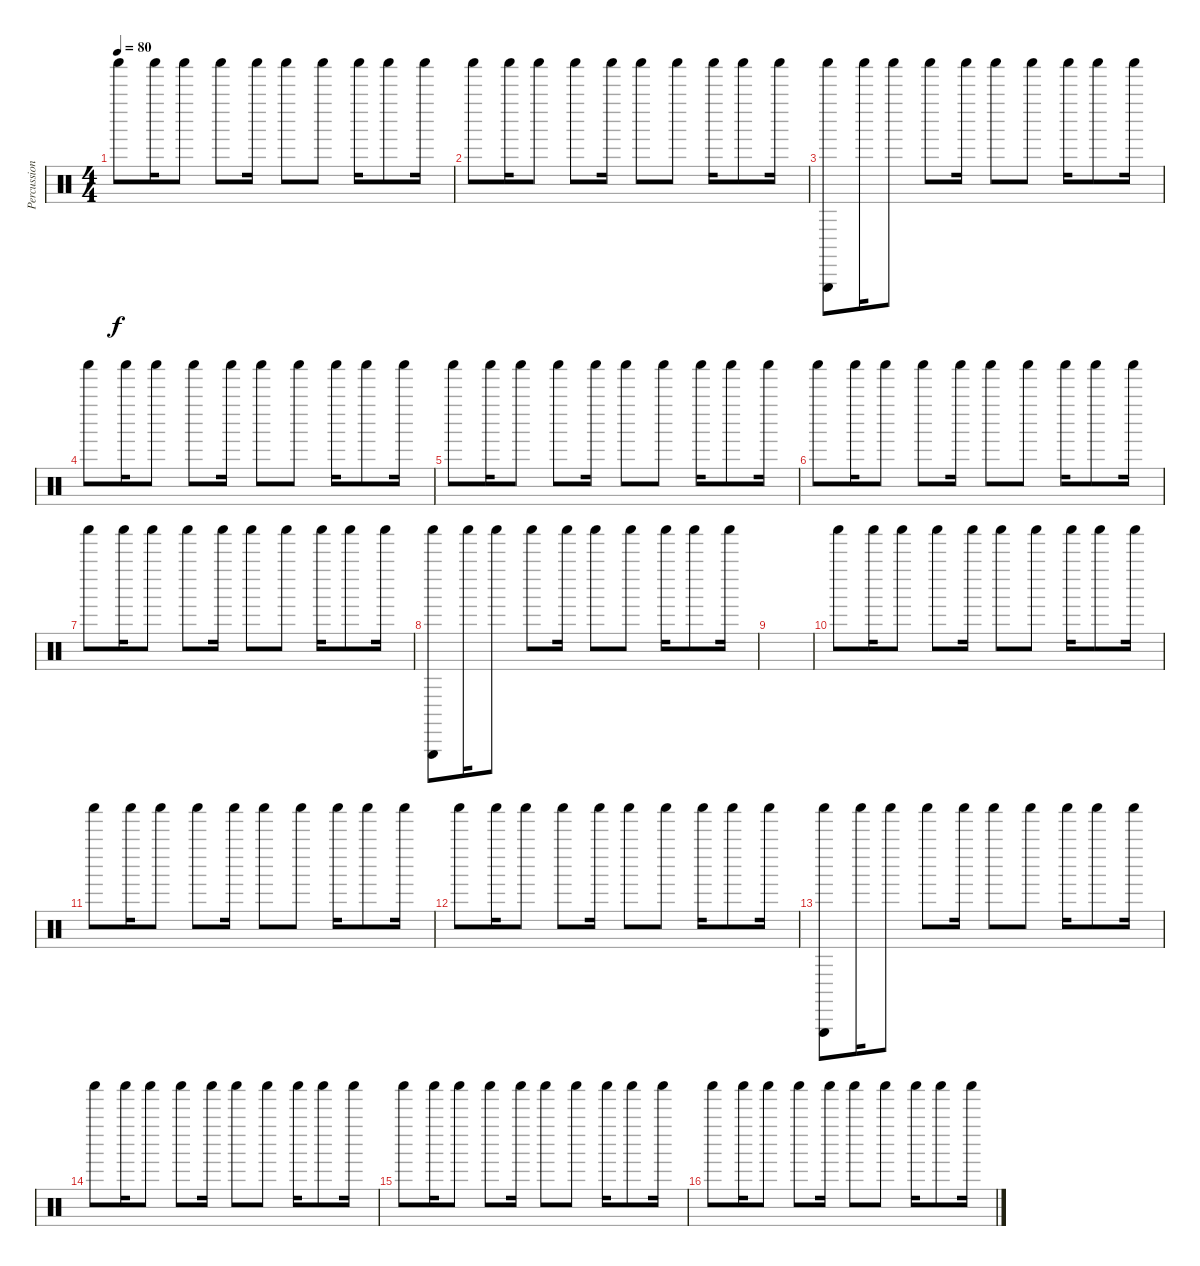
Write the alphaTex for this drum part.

\track ("Percussion" "Percussion") {instrument percussion}
\staff {score}
\articulation defaults
\ts (4 4)
\tempo 80
\clef neutral
\ks c "Shaker (hit)".8{dy f} "Shaker (hit)".16 "Shaker (hit)".8 "Shaker (hit)".8 "Shaker (hit)".16 "Shaker (hit)".8 "Shaker (hit)".8 "Shaker (hit)".16 "Shaker (hit)".8 "Shaker (hit)".16
|
"Shaker (hit)".8 "Shaker (hit)".16 "Shaker (hit)".8 "Shaker (hit)".8 "Shaker (hit)".16 "Shaker (hit)".8 "Shaker (hit)".8 "Shaker (hit)".16 "Shaker (hit)".8 "Shaker (hit)".16 |
("Shaker (hit)" "Triangle (hit)").8 "Shaker (hit)".16 "Shaker (hit)".8 "Shaker (hit)".8 "Shaker (hit)".16 "Shaker (hit)".8 "Shaker (hit)".8 "Shaker (hit)".16 "Shaker (hit)".8 "Shaker (hit)".16 |
"Shaker (hit)".8 "Shaker (hit)".16 "Shaker (hit)".8 "Shaker (hit)".8 "Shaker (hit)".16 "Shaker (hit)".8 "Shaker (hit)".8 "Shaker (hit)".16 "Shaker (hit)".8 "Shaker (hit)".16 |
"Shaker (hit)".8 "Shaker (hit)".16 "Shaker (hit)".8 "Shaker (hit)".8 "Shaker (hit)".16 "Shaker (hit)".8 "Shaker (hit)".8 "Shaker (hit)".16 "Shaker (hit)".8 "Shaker (hit)".16 |
"Shaker (hit)".8 "Shaker (hit)".16 "Shaker (hit)".8 "Shaker (hit)".8 "Shaker (hit)".16 "Shaker (hit)".8 "Shaker (hit)".8 "Shaker (hit)".16 "Shaker (hit)".8 "Shaker (hit)".16 |
"Shaker (hit)".8 "Shaker (hit)".16 "Shaker (hit)".8 "Shaker (hit)".8 "Shaker (hit)".16 "Shaker (hit)".8 "Shaker (hit)".8 "Shaker (hit)".16 "Shaker (hit)".8 "Shaker (hit)".16 |
("Shaker (hit)" "Triangle (hit)").8 "Shaker (hit)".16 "Shaker (hit)".8 "Shaker (hit)".8 "Shaker (hit)".16 "Shaker (hit)".8 "Shaker (hit)".8 "Shaker (hit)".16 "Shaker (hit)".8 "Shaker (hit)".16 |
|
"Shaker (hit)".8 "Shaker (hit)".16 "Shaker (hit)".8 "Shaker (hit)".8 "Shaker (hit)".16 "Shaker (hit)".8 "Shaker (hit)".8 "Shaker (hit)".16 "Shaker (hit)".8 "Shaker (hit)".16 |
"Shaker (hit)".8 "Shaker (hit)".16 "Shaker (hit)".8 "Shaker (hit)".8 "Shaker (hit)".16 "Shaker (hit)".8 "Shaker (hit)".8 "Shaker (hit)".16 "Shaker (hit)".8 "Shaker (hit)".16 |
"Shaker (hit)".8 "Shaker (hit)".16 "Shaker (hit)".8 "Shaker (hit)".8 "Shaker (hit)".16 "Shaker (hit)".8 "Shaker (hit)".8 "Shaker (hit)".16 "Shaker (hit)".8 "Shaker (hit)".16 |
("Shaker (hit)" "Triangle (hit)").8 "Shaker (hit)".16 "Shaker (hit)".8 "Shaker (hit)".8 "Shaker (hit)".16 "Shaker (hit)".8 "Shaker (hit)".8 "Shaker (hit)".16 "Shaker (hit)".8 "Shaker (hit)".16 |
"Shaker (hit)".8 "Shaker (hit)".16 "Shaker (hit)".8 "Shaker (hit)".8 "Shaker (hit)".16 "Shaker (hit)".8 "Shaker (hit)".8 "Shaker (hit)".16 "Shaker (hit)".8 "Shaker (hit)".16 |
"Shaker (hit)".8 "Shaker (hit)".16 "Shaker (hit)".8 "Shaker (hit)".8 "Shaker (hit)".16 "Shaker (hit)".8 "Shaker (hit)".8 "Shaker (hit)".16 "Shaker (hit)".8 "Shaker (hit)".16 |
"Shaker (hit)".8 "Shaker (hit)".16 "Shaker (hit)".8 "Shaker (hit)".8 "Shaker (hit)".16 "Shaker (hit)".8 "Shaker (hit)".8 "Shaker (hit)".16 "Shaker (hit)".8 "Shaker (hit)".16
